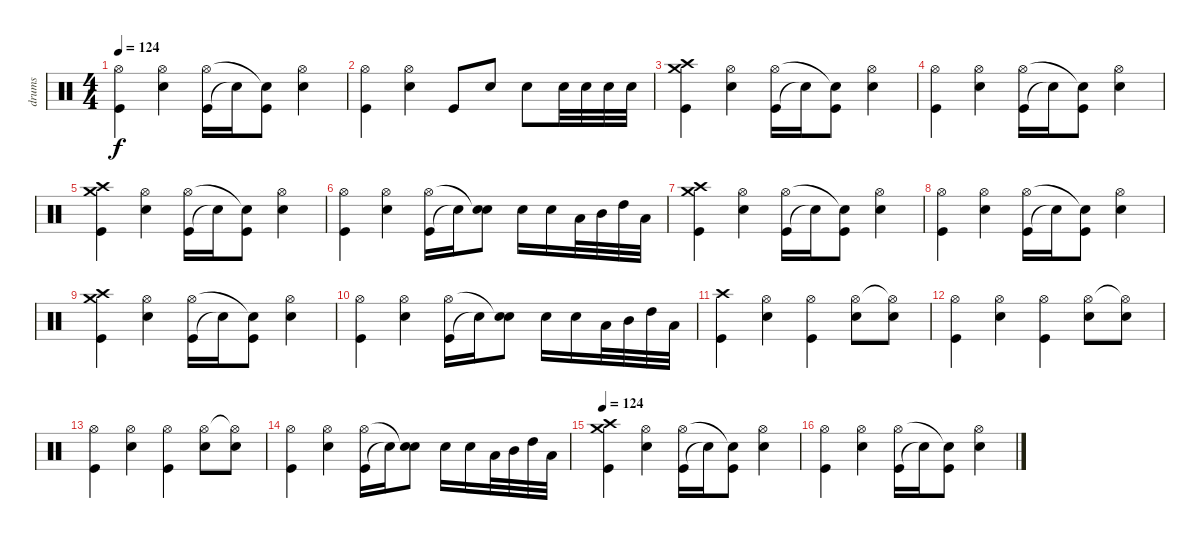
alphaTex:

\track ("drums" "drums") {instrument percussion}
\staff {score}
\articulation defaults
\ts (4 4)
\tempo 124
\clef neutral
\ks c
("Kick (hit)" "Hi-Hat (open)").4{dy f} ("Snare (hit) 2" "Hi-Hat (open)").4 ("Kick (hit)" "Hi-Hat (open)").16 "Snare (hit)"{t}.16 ("Kick (hit)" "Snare (hit)"{t}).8 ("Snare (hit) 2" "Hi-Hat (open)").4 |
("Kick (hit)" "Hi-Hat (open)").4 ("Snare (hit) 2" "Hi-Hat (open)").4 "Kick (hit)".8 "Snare (hit) 2".8 "Snare (hit) 2".8 "Snare (hit) 2".32 "Snare (hit) 2".32 "Snare (hit) 2".32 "Snare (hit) 2".32 |
("Kick (hit)" "Crash medium (hit)" "Crash high (hit)").4 ("Snare (hit) 2" "Hi-Hat (open)").4 ("Kick (hit)" "Hi-Hat (open)").16 "Snare (hit)"{t}.16 ("Kick (hit)" "Snare (hit)"{t}).8 ("Snare (hit) 2" "Hi-Hat (open)").4 |
("Kick (hit)" "Hi-Hat (open)").4 ("Snare (hit) 2" "Hi-Hat (open)").4 ("Kick (hit)" "Hi-Hat (open)").16 "Snare (hit)"{t}.16 ("Kick (hit)" "Snare (hit)"{t}).8 ("Snare (hit) 2" "Hi-Hat (open)").4 |
("Kick (hit)" "Crash medium (hit)" "Crash high (hit)").4 ("Snare (hit) 2" "Hi-Hat (open)").4 ("Kick (hit)" "Hi-Hat (open)").16 "Snare (hit)"{t}.16 ("Kick (hit)" "Snare (hit)"{t}).8 ("Snare (hit) 2" "Hi-Hat (open)").4 |
("Kick (hit)" "Hi-Hat (open)").4 ("Snare (hit) 2" "Hi-Hat (open)").4 ("Kick (hit)" "Hi-Hat (open)").16 "Snare (hit)"{t}.16 ("Snare (hit) 2" "Snare (hit)"{t}).8 "Snare (hit) 2".16 "Snare (hit) 2".16 "Low Tom (hit)".32 "Mid Tom (hit)".32 "High Tom (hit)".32 "Low Floor Tom (hit)".32 |
("Kick (hit)" "Crash medium (hit)" "Crash high (hit)").4 ("Snare (hit) 2" "Hi-Hat (open)").4 ("Kick (hit)" "Hi-Hat (open)").16 "Snare (hit)"{t}.16 ("Kick (hit)" "Snare (hit)"{t}).8 ("Snare (hit) 2" "Hi-Hat (open)").4 |
("Kick (hit)" "Hi-Hat (open)").4 ("Snare (hit) 2" "Hi-Hat (open)").4 ("Kick (hit)" "Hi-Hat (open)").16 "Snare (hit)"{t}.16 ("Kick (hit)" "Snare (hit)"{t}).8 ("Snare (hit) 2" "Hi-Hat (open)").4 |
("Kick (hit)" "Crash medium (hit)" "Crash high (hit)").4 ("Snare (hit) 2" "Hi-Hat (open)").4 ("Kick (hit)" "Hi-Hat (open)").16 "Snare (hit)"{t}.16 ("Kick (hit)" "Snare (hit)"{t}).8 ("Snare (hit) 2" "Hi-Hat (open)").4 |
("Kick (hit)" "Hi-Hat (open)").4 ("Snare (hit) 2" "Hi-Hat (open)").4 ("Kick (hit)" "Hi-Hat (open)").16 "Snare (hit)"{t}.16 ("Snare (hit) 2" "Snare (hit)"{t}).8 "Snare (hit) 2".16 "Snare (hit) 2".16 "Low Tom (hit)".32 "Mid Tom (hit)".32 "High Tom (hit)".32 "Low Floor Tom (hit)".32 |
("Kick (hit)" "Crash high (hit)").4 ("Snare (hit) 2" "Hi-Hat (open)").4 ("Kick (hit)" "Hi-Hat (open)").4 ("Snare (hit) 2" "Hi-Hat (open)").8 ("Snare (hit) 2" "Hi-Hat (open)"{t}).8 |
("Kick (hit)" "Hi-Hat (open)").4 ("Snare (hit) 2" "Hi-Hat (open)").4 ("Kick (hit)" "Hi-Hat (open)").4 ("Snare (hit) 2" "Hi-Hat (open)").8 ("Snare (hit) 2" "Hi-Hat (open)"{t}).8 |
("Kick (hit)" "Hi-Hat (open)").4 ("Snare (hit) 2" "Hi-Hat (open)").4 ("Kick (hit)" "Hi-Hat (open)").4 ("Snare (hit) 2" "Hi-Hat (open)").8 ("Snare (hit) 2" "Hi-Hat (open)"{t}).8 |
("Kick (hit)" "Hi-Hat (open)").4 ("Snare (hit) 2" "Hi-Hat (open)").4 ("Kick (hit)" "Hi-Hat (open)").16 "Snare (hit)"{t}.16 ("Snare (hit) 2" "Snare (hit)"{t}).8 "Snare (hit) 2".16 "Snare (hit) 2".16 "Low Tom (hit)".32 "Mid Tom (hit)".32 "High Tom (hit)".32 "Low Floor Tom (hit)".32 |
\tempo 124
("Kick (hit)" "Crash medium (hit)" "Crash high (hit)").4 ("Snare (hit) 2" "Hi-Hat (open)").4 ("Kick (hit)" "Hi-Hat (open)").16 "Snare (hit)"{t}.16 ("Kick (hit)" "Snare (hit)"{t}).8 ("Snare (hit) 2" "Hi-Hat (open)").4 |
("Kick (hit)" "Hi-Hat (open)").4 ("Snare (hit) 2" "Hi-Hat (open)").4 ("Kick (hit)" "Hi-Hat (open)").16 "Snare (hit)"{t}.16 ("Kick (hit)" "Snare (hit)"{t}).8 ("Snare (hit) 2" "Hi-Hat (open)").4
